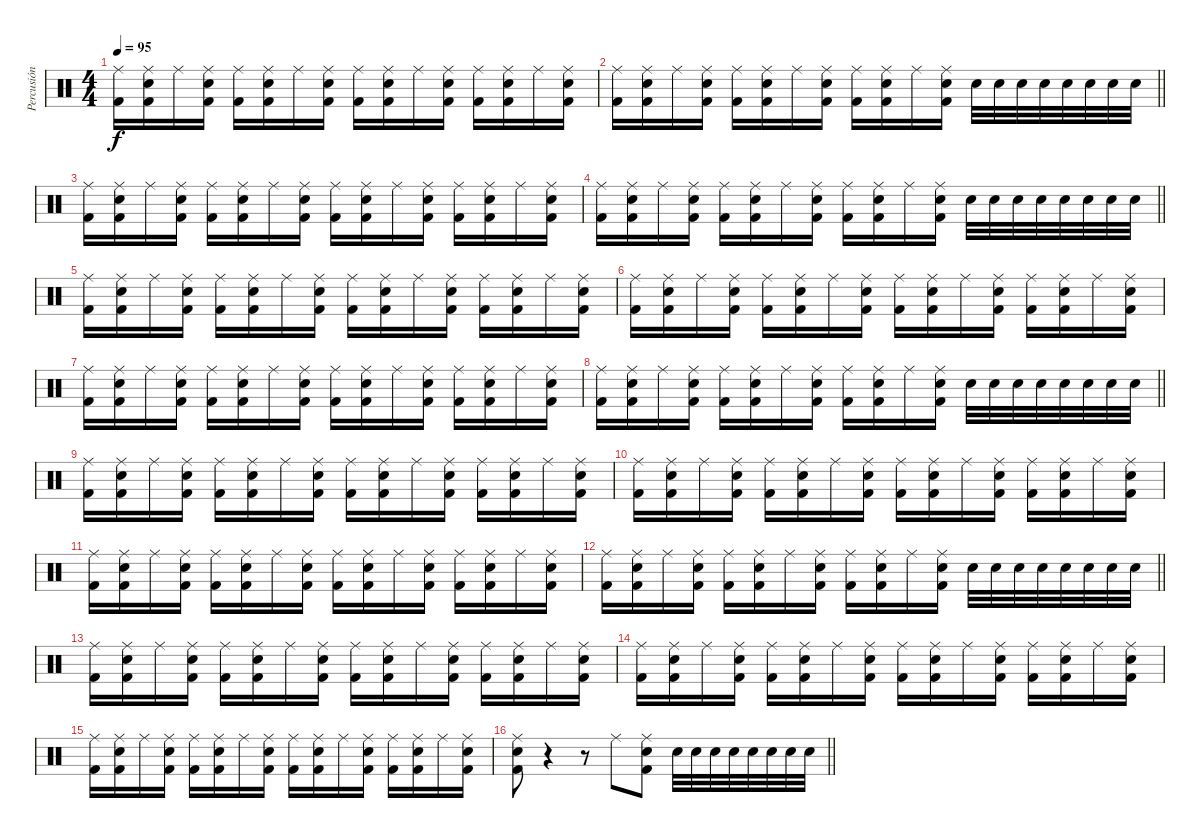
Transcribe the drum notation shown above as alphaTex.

\track ("Percusión" "Percusión") {instrument percussion}
\staff {score}
\articulation defaults
\ts (4 4)
\tempo 95
\clef neutral
\ks c
("Ride (middle)" "Kick (hit) 2").16{dy f} ("Ride (middle)" "Snare (hit) 2" "Kick (hit) 2").16 "Ride (middle)".16 ("Ride (middle)" "Snare (hit) 2" "Kick (hit) 2").16 ("Ride (middle)" "Kick (hit) 2").16 ("Ride (middle)" "Snare (hit) 2" "Kick (hit) 2").16 "Ride (middle)".16 ("Ride (middle)" "Snare (hit) 2" "Kick (hit) 2").16 ("Ride (middle)" "Kick (hit) 2").16 ("Ride (middle)" "Snare (hit) 2" "Kick (hit) 2").16 "Ride (middle)".16 ("Ride (middle)" "Snare (hit) 2" "Kick (hit) 2").16 ("Ride (middle)" "Kick (hit) 2").16 ("Ride (middle)" "Snare (hit) 2" "Kick (hit) 2").16 "Ride (middle)".16 ("Ride (middle)" "Snare (hit) 2" "Kick (hit) 2").16 |
\barLineRight lightlight
("Ride (middle)" "Kick (hit) 2").16 ("Ride (middle)" "Snare (hit) 2" "Kick (hit) 2").16 "Ride (middle)".16 ("Ride (middle)" "Snare (hit) 2" "Kick (hit) 2").16 ("Ride (middle)" "Kick (hit) 2").16 ("Ride (middle)" "Snare (hit) 2" "Kick (hit) 2").16 "Ride (middle)".16 ("Ride (middle)" "Snare (hit) 2" "Kick (hit) 2").16 ("Ride (middle)" "Kick (hit) 2").16 ("Ride (middle)" "Snare (hit) 2" "Kick (hit) 2").16 "Ride (middle)".16 ("Ride (middle)" "Snare (hit) 2" "Kick (hit) 2").16 "Snare (hit) 2".32 "Snare (hit) 2".32 "Snare (hit) 2".32 "Snare (hit) 2".32 "Snare (hit) 2".32 "Snare (hit) 2".32 "Snare (hit) 2".32 "Snare (hit) 2".32 |
("Ride (middle)" "Kick (hit) 2").16 ("Ride (middle)" "Snare (hit) 2" "Kick (hit) 2").16 "Ride (middle)".16 ("Ride (middle)" "Snare (hit) 2" "Kick (hit) 2").16 ("Ride (middle)" "Kick (hit) 2").16 ("Ride (middle)" "Snare (hit) 2" "Kick (hit) 2").16 "Ride (middle)".16 ("Ride (middle)" "Snare (hit) 2" "Kick (hit) 2").16 ("Ride (middle)" "Kick (hit) 2").16 ("Ride (middle)" "Snare (hit) 2" "Kick (hit) 2").16 "Ride (middle)".16 ("Ride (middle)" "Snare (hit) 2" "Kick (hit) 2").16 ("Ride (middle)" "Kick (hit) 2").16 ("Ride (middle)" "Snare (hit) 2" "Kick (hit) 2").16 "Ride (middle)".16 ("Ride (middle)" "Snare (hit) 2" "Kick (hit) 2").16 |
\barLineRight lightlight
("Ride (middle)" "Kick (hit) 2").16 ("Ride (middle)" "Snare (hit) 2" "Kick (hit) 2").16 "Ride (middle)".16 ("Ride (middle)" "Snare (hit) 2" "Kick (hit) 2").16 ("Ride (middle)" "Kick (hit) 2").16 ("Ride (middle)" "Snare (hit) 2" "Kick (hit) 2").16 "Ride (middle)".16 ("Ride (middle)" "Snare (hit) 2" "Kick (hit) 2").16 ("Ride (middle)" "Kick (hit) 2").16 ("Ride (middle)" "Snare (hit) 2" "Kick (hit) 2").16 "Ride (middle)".16 ("Ride (middle)" "Snare (hit) 2" "Kick (hit) 2").16 "Snare (hit) 2".32 "Snare (hit) 2".32 "Snare (hit) 2".32 "Snare (hit) 2".32 "Snare (hit) 2".32 "Snare (hit) 2".32 "Snare (hit) 2".32 "Snare (hit) 2".32 |
("Ride (middle)" "Kick (hit) 2").16 ("Ride (middle)" "Snare (hit) 2" "Kick (hit) 2").16 "Ride (middle)".16 ("Ride (middle)" "Snare (hit) 2" "Kick (hit) 2").16 ("Ride (middle)" "Kick (hit) 2").16 ("Ride (middle)" "Snare (hit) 2" "Kick (hit) 2").16 "Ride (middle)".16 ("Ride (middle)" "Snare (hit) 2" "Kick (hit) 2").16 ("Ride (middle)" "Kick (hit) 2").16 ("Ride (middle)" "Snare (hit) 2" "Kick (hit) 2").16 "Ride (middle)".16 ("Ride (middle)" "Snare (hit) 2" "Kick (hit) 2").16 ("Ride (middle)" "Kick (hit) 2").16 ("Ride (middle)" "Snare (hit) 2" "Kick (hit) 2").16 "Ride (middle)".16 ("Ride (middle)" "Snare (hit) 2" "Kick (hit) 2").16 |
("Ride (middle)" "Kick (hit) 2").16 ("Ride (middle)" "Snare (hit) 2" "Kick (hit) 2").16 "Ride (middle)".16 ("Ride (middle)" "Snare (hit) 2" "Kick (hit) 2").16 ("Ride (middle)" "Kick (hit) 2").16 ("Ride (middle)" "Snare (hit) 2" "Kick (hit) 2").16 "Ride (middle)".16 ("Ride (middle)" "Snare (hit) 2" "Kick (hit) 2").16 ("Ride (middle)" "Kick (hit) 2").16 ("Ride (middle)" "Snare (hit) 2" "Kick (hit) 2").16 "Ride (middle)".16 ("Ride (middle)" "Snare (hit) 2" "Kick (hit) 2").16 ("Ride (middle)" "Kick (hit) 2").16 ("Ride (middle)" "Snare (hit) 2" "Kick (hit) 2").16 "Ride (middle)".16 ("Ride (middle)" "Snare (hit) 2" "Kick (hit) 2").16 |
("Ride (middle)" "Kick (hit) 2").16 ("Ride (middle)" "Snare (hit) 2" "Kick (hit) 2").16 "Ride (middle)".16 ("Ride (middle)" "Snare (hit) 2" "Kick (hit) 2").16 ("Ride (middle)" "Kick (hit) 2").16 ("Ride (middle)" "Snare (hit) 2" "Kick (hit) 2").16 "Ride (middle)".16 ("Ride (middle)" "Snare (hit) 2" "Kick (hit) 2").16 ("Ride (middle)" "Kick (hit) 2").16 ("Ride (middle)" "Snare (hit) 2" "Kick (hit) 2").16 "Ride (middle)".16 ("Ride (middle)" "Snare (hit) 2" "Kick (hit) 2").16 ("Ride (middle)" "Kick (hit) 2").16 ("Ride (middle)" "Snare (hit) 2" "Kick (hit) 2").16 "Ride (middle)".16 ("Ride (middle)" "Snare (hit) 2" "Kick (hit) 2").16 |
\barLineRight lightlight
("Ride (middle)" "Kick (hit) 2").16 ("Ride (middle)" "Snare (hit) 2" "Kick (hit) 2").16 "Ride (middle)".16 ("Ride (middle)" "Snare (hit) 2" "Kick (hit) 2").16 ("Ride (middle)" "Kick (hit) 2").16 ("Ride (middle)" "Snare (hit) 2" "Kick (hit) 2").16 "Ride (middle)".16 ("Ride (middle)" "Snare (hit) 2" "Kick (hit) 2").16 ("Ride (middle)" "Kick (hit) 2").16 ("Ride (middle)" "Snare (hit) 2" "Kick (hit) 2").16 "Ride (middle)".16 ("Ride (middle)" "Snare (hit) 2" "Kick (hit) 2").16 "Snare (hit) 2".32 "Snare (hit) 2".32 "Snare (hit) 2".32 "Snare (hit) 2".32 "Snare (hit) 2".32 "Snare (hit) 2".32 "Snare (hit) 2".32 "Snare (hit) 2".32 |
("Ride (middle)" "Kick (hit) 2").16 ("Ride (middle)" "Snare (hit) 2" "Kick (hit) 2").16 "Ride (middle)".16 ("Ride (middle)" "Snare (hit) 2" "Kick (hit) 2").16 ("Ride (middle)" "Kick (hit) 2").16 ("Ride (middle)" "Snare (hit) 2" "Kick (hit) 2").16 "Ride (middle)".16 ("Ride (middle)" "Snare (hit) 2" "Kick (hit) 2").16 ("Ride (middle)" "Kick (hit) 2").16 ("Ride (middle)" "Snare (hit) 2" "Kick (hit) 2").16 "Ride (middle)".16 ("Ride (middle)" "Snare (hit) 2" "Kick (hit) 2").16 ("Ride (middle)" "Kick (hit) 2").16 ("Ride (middle)" "Snare (hit) 2" "Kick (hit) 2").16 "Ride (middle)".16 ("Ride (middle)" "Snare (hit) 2" "Kick (hit) 2").16 |
("Ride (middle)" "Kick (hit) 2").16 ("Ride (middle)" "Snare (hit) 2" "Kick (hit) 2").16 "Ride (middle)".16 ("Ride (middle)" "Snare (hit) 2" "Kick (hit) 2").16 ("Ride (middle)" "Kick (hit) 2").16 ("Ride (middle)" "Snare (hit) 2" "Kick (hit) 2").16 "Ride (middle)".16 ("Ride (middle)" "Snare (hit) 2" "Kick (hit) 2").16 ("Ride (middle)" "Kick (hit) 2").16 ("Ride (middle)" "Snare (hit) 2" "Kick (hit) 2").16 "Ride (middle)".16 ("Ride (middle)" "Snare (hit) 2" "Kick (hit) 2").16 ("Ride (middle)" "Kick (hit) 2").16 ("Ride (middle)" "Snare (hit) 2" "Kick (hit) 2").16 "Ride (middle)".16 ("Ride (middle)" "Snare (hit) 2" "Kick (hit) 2").16 |
("Ride (middle)" "Kick (hit) 2").16 ("Ride (middle)" "Snare (hit) 2" "Kick (hit) 2").16 "Ride (middle)".16 ("Ride (middle)" "Snare (hit) 2" "Kick (hit) 2").16 ("Ride (middle)" "Kick (hit) 2").16 ("Ride (middle)" "Snare (hit) 2" "Kick (hit) 2").16 "Ride (middle)".16 ("Ride (middle)" "Snare (hit) 2" "Kick (hit) 2").16 ("Ride (middle)" "Kick (hit) 2").16 ("Ride (middle)" "Snare (hit) 2" "Kick (hit) 2").16 "Ride (middle)".16 ("Ride (middle)" "Snare (hit) 2" "Kick (hit) 2").16 ("Ride (middle)" "Kick (hit) 2").16 ("Ride (middle)" "Snare (hit) 2" "Kick (hit) 2").16 "Ride (middle)".16 ("Ride (middle)" "Snare (hit) 2" "Kick (hit) 2").16 |
\barLineRight lightlight
("Ride (middle)" "Kick (hit) 2").16 ("Ride (middle)" "Snare (hit) 2" "Kick (hit) 2").16 "Ride (middle)".16 ("Ride (middle)" "Snare (hit) 2" "Kick (hit) 2").16 ("Ride (middle)" "Kick (hit) 2").16 ("Ride (middle)" "Snare (hit) 2" "Kick (hit) 2").16 "Ride (middle)".16 ("Ride (middle)" "Snare (hit) 2" "Kick (hit) 2").16 ("Ride (middle)" "Kick (hit) 2").16 ("Ride (middle)" "Snare (hit) 2" "Kick (hit) 2").16 "Ride (middle)".16 ("Ride (middle)" "Snare (hit) 2" "Kick (hit) 2").16 "Snare (hit) 2".32 "Snare (hit) 2".32 "Snare (hit) 2".32 "Snare (hit) 2".32 "Snare (hit) 2".32 "Snare (hit) 2".32 "Snare (hit) 2".32 "Snare (hit) 2".32 |
("Ride (middle)" "Kick (hit) 2").16 ("Ride (middle)" "Snare (hit) 2" "Kick (hit) 2").16 "Ride (middle)".16 ("Ride (middle)" "Snare (hit) 2" "Kick (hit) 2").16 ("Ride (middle)" "Kick (hit) 2").16 ("Ride (middle)" "Snare (hit) 2" "Kick (hit) 2").16 "Ride (middle)".16 ("Ride (middle)" "Snare (hit) 2" "Kick (hit) 2").16 ("Ride (middle)" "Kick (hit) 2").16 ("Ride (middle)" "Snare (hit) 2" "Kick (hit) 2").16 "Ride (middle)".16 ("Ride (middle)" "Snare (hit) 2" "Kick (hit) 2").16 ("Ride (middle)" "Kick (hit) 2").16 ("Ride (middle)" "Snare (hit) 2" "Kick (hit) 2").16 "Ride (middle)".16 ("Ride (middle)" "Snare (hit) 2" "Kick (hit) 2").16 |
("Ride (middle)" "Kick (hit) 2").16 ("Ride (middle)" "Snare (hit) 2" "Kick (hit) 2").16 "Ride (middle)".16 ("Ride (middle)" "Snare (hit) 2" "Kick (hit) 2").16 ("Ride (middle)" "Kick (hit) 2").16 ("Ride (middle)" "Snare (hit) 2" "Kick (hit) 2").16 "Ride (middle)".16 ("Ride (middle)" "Snare (hit) 2" "Kick (hit) 2").16 ("Ride (middle)" "Kick (hit) 2").16 ("Ride (middle)" "Snare (hit) 2" "Kick (hit) 2").16 "Ride (middle)".16 ("Ride (middle)" "Snare (hit) 2" "Kick (hit) 2").16 ("Ride (middle)" "Kick (hit) 2").16 ("Ride (middle)" "Snare (hit) 2" "Kick (hit) 2").16 "Ride (middle)".16 ("Ride (middle)" "Snare (hit) 2" "Kick (hit) 2").16 |
("Ride (middle)" "Kick (hit) 2").16 ("Ride (middle)" "Snare (hit) 2" "Kick (hit) 2").16 "Ride (middle)".16 ("Ride (middle)" "Snare (hit) 2" "Kick (hit) 2").16 ("Ride (middle)" "Kick (hit) 2").16 ("Ride (middle)" "Snare (hit) 2" "Kick (hit) 2").16 "Ride (middle)".16 ("Ride (middle)" "Snare (hit) 2" "Kick (hit) 2").16 ("Ride (middle)" "Kick (hit) 2").16 ("Ride (middle)" "Snare (hit) 2" "Kick (hit) 2").16 "Ride (middle)".16 ("Ride (middle)" "Snare (hit) 2" "Kick (hit) 2").16 ("Ride (middle)" "Kick (hit) 2").16 ("Ride (middle)" "Snare (hit) 2" "Kick (hit) 2").16 "Ride (middle)".16 ("Ride (middle)" "Snare (hit) 2" "Kick (hit) 2").16 |
\barLineRight lightlight
("Ride (middle)" "Snare (hit) 2" "Kick (hit) 2").8 r.4 r.8 "Ride (middle)".8 ("Ride (middle)" "Snare (hit) 2" "Kick (hit) 2").8 "Snare (hit) 2".32 "Snare (hit) 2".32 "Snare (hit) 2".32 "Snare (hit) 2".32 "Snare (hit) 2".32 "Snare (hit) 2".32 "Snare (hit) 2".32 "Snare (hit) 2".32
